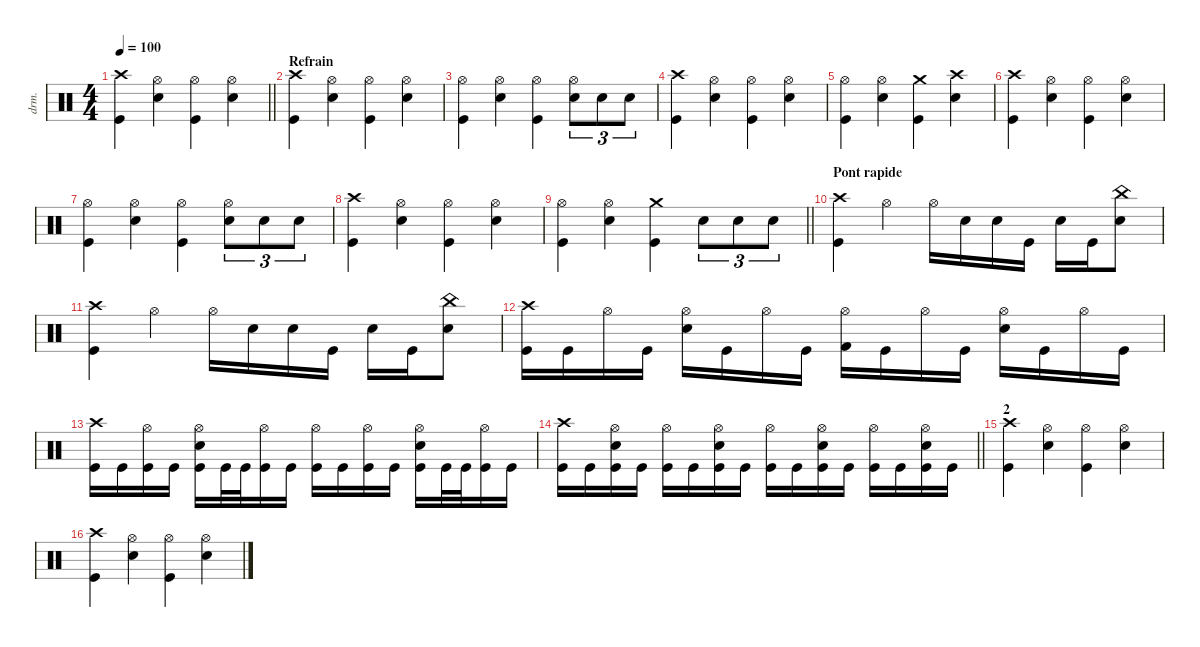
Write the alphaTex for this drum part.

\defaultSystemsLayout 4
\hideDynamics
\bracketExtendMode nobrackets
\otherSystemsTrackNameOrientation horizontal
\track ("Drumkit" "drm.") {instrument percussion}
\staff {score}
\articulation defaults
\ts (4 4)
\tempo 100
\clef neutral
\barLineRight lightlight
\ks c
("Crash high (hit)" "Kick (hit)").4{dy f} ("Hi-Hat (open)" "Snare (hit) 2").4 ("Hi-Hat (open)" "Kick (hit)").4 ("Hi-Hat (open)" "Snare (hit) 2").4 |
\section ("" "Refrain")
("Crash high (hit)" "Kick (hit)").4 ("Hi-Hat (open)" "Snare (hit) 2").4 ("Hi-Hat (open)" "Kick (hit)").4 ("Hi-Hat (open)" "Snare (hit) 2").4 |
("Hi-Hat (open)" "Kick (hit)").4 ("Hi-Hat (open)" "Snare (hit) 2").4 ("Hi-Hat (open)" "Kick (hit)").4 ("Hi-Hat (open)" "Snare (hit) 2").8{tu (3 2)} "Snare (hit) 2".8{tu (3 2)} "Snare (hit) 2".8{tu (3 2)} |
("Crash high (hit)" "Kick (hit)").4 ("Hi-Hat (open)" "Snare (hit) 2").4 ("Hi-Hat (open)" "Kick (hit)").4 ("Hi-Hat (open)" "Snare (hit) 2").4 |
("Hi-Hat (open)" "Kick (hit)").4 ("Hi-Hat (open)" "Snare (hit) 2").4 ("Crash medium (hit)" "Kick (hit)").4 ("Crash high (hit)" "Snare (hit) 2").4 |
("Crash high (hit)" "Kick (hit)").4 ("Hi-Hat (open)" "Snare (hit) 2").4 ("Hi-Hat (open)" "Kick (hit)").4 ("Hi-Hat (open)" "Snare (hit) 2").4 |
("Hi-Hat (open)" "Kick (hit)").4 ("Hi-Hat (open)" "Snare (hit) 2").4 ("Hi-Hat (open)" "Kick (hit)").4 ("Hi-Hat (open)" "Snare (hit) 2").8{tu (3 2)} "Snare (hit) 2".8{tu (3 2)} "Snare (hit) 2".8{tu (3 2)} |
("Crash high (hit)" "Kick (hit)").4 ("Hi-Hat (open)" "Snare (hit) 2").4 ("Hi-Hat (open)" "Kick (hit)").4 ("Hi-Hat (open)" "Snare (hit) 2").4 |
\barLineRight lightlight
("Hi-Hat (open)" "Kick (hit)").4 ("Hi-Hat (open)" "Snare (hit) 2").4 ("Crash medium (hit)" "Kick (hit)").4 "Snare (hit) 2".8{tu (3 2)} "Snare (hit) 2".8{tu (3 2)} "Snare (hit) 2".8{tu (3 2)} |
\section ("" "Pont rapide")
("Crash high (hit)" "Kick (hit)").4 "Hi-Hat (open)".4 "Hi-Hat (open)".16 "Snare (hit) 2".16 "Snare (hit) 2".16 "Kick (hit)".16 "Snare (hit) 2".16 "Kick (hit)".16 ("Snare (hit) 2" "China (hit)").8 |
("Crash high (hit)" "Kick (hit)").4 "Hi-Hat (open)".4 "Hi-Hat (open)".16 "Snare (hit) 2".16 "Snare (hit) 2".16 "Kick (hit)".16 "Snare (hit) 2".16 "Kick (hit)".16 ("Snare (hit) 2" "China (hit)").8 |
("Crash high (hit)" "Kick (hit)").16 "Kick (hit)".16 "Hi-Hat (open)".16 "Kick (hit)".16 ("Hi-Hat (open)" "Snare (hit) 2").16 "Kick (hit)".16 "Hi-Hat (open)".16 "Kick (hit)".16 ("Kick (hit) 2" "Hi-Hat (open)").16 "Kick (hit)".16 "Hi-Hat (open)".16 "Kick (hit)".16 ("Hi-Hat (open)" "Snare (hit) 2").16 "Kick (hit)".16 "Hi-Hat (open)".16 "Kick (hit)".16 |
("Crash high (hit)" "Kick (hit)").16 "Kick (hit)".16 ("Kick (hit)" "Hi-Hat (open)").16 "Kick (hit)".16 ("Kick (hit)" "Hi-Hat (open)" "Snare (hit) 2").16 "Kick (hit)".32 "Kick (hit)".32 ("Kick (hit)" "Hi-Hat (open)").16 "Kick (hit)".16 ("Kick (hit)" "Hi-Hat (open)").16 "Kick (hit)".16 ("Kick (hit)" "Hi-Hat (open)").16 "Kick (hit)".16 ("Kick (hit)" "Hi-Hat (open)" "Snare (hit) 2").16 "Kick (hit)".32 "Kick (hit)".32 ("Kick (hit)" "Hi-Hat (open)").16 "Kick (hit)".16 |
\barLineRight lightlight
("Crash high (hit)" "Kick (hit)").16 "Kick (hit)".16 ("Kick (hit)" "Hi-Hat (open)" "Snare (hit) 2").16 "Kick (hit)".16 ("Kick (hit)" "Hi-Hat (open)").16 "Kick (hit)".16 ("Kick (hit)" "Hi-Hat (open)" "Snare (hit) 2").16 "Kick (hit)".16 ("Kick (hit)" "Hi-Hat (open)").16 "Kick (hit)".16 ("Kick (hit)" "Hi-Hat (open)" "Snare (hit) 2").16 "Kick (hit)".16 ("Kick (hit)" "Hi-Hat (open)").16 "Kick (hit)".16 ("Kick (hit)" "Hi-Hat (open)" "Snare (hit) 2").16 "Kick (hit)".16 |
\section ("" "2")
("Crash high (hit)" "Kick (hit)").4 ("Hi-Hat (open)" "Snare (hit) 2").4 ("Hi-Hat (open)" "Kick (hit)").4 ("Hi-Hat (open)" "Snare (hit) 2").4 |
("Crash high (hit)" "Kick (hit)").4 ("Hi-Hat (open)" "Snare (hit) 2").4 ("Hi-Hat (open)" "Kick (hit)").4 ("Hi-Hat (open)" "Snare (hit) 2").4
